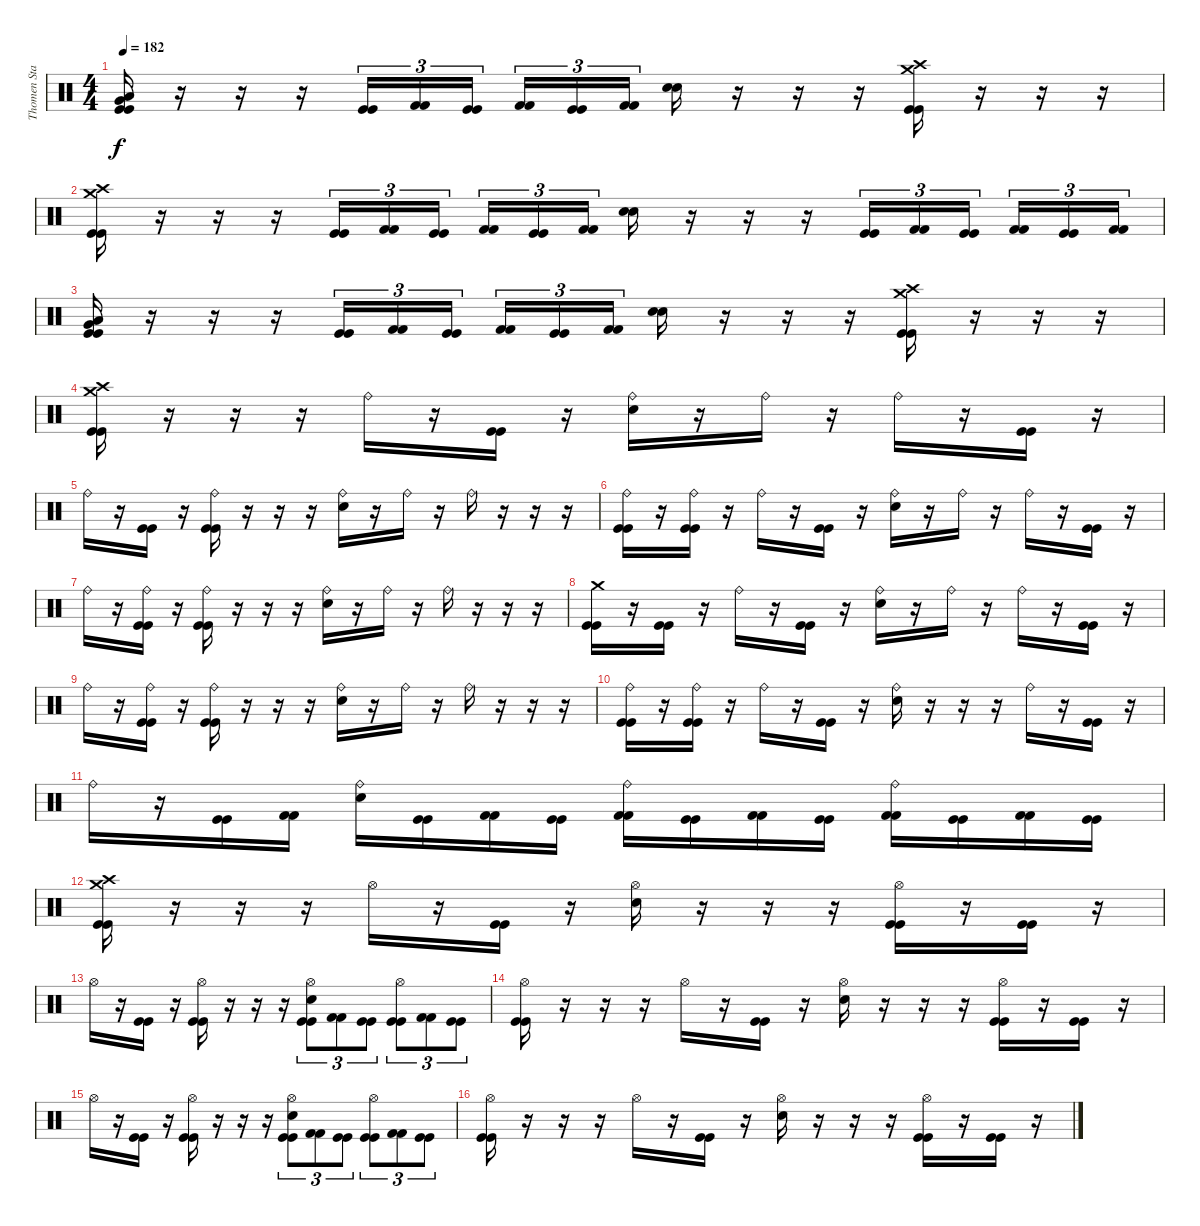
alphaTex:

\track ("Thomen Stauch" "Thomen Sta") {instrument percussion}
\staff {score}
\articulation defaults
\ts (4 4)
\tempo 182
\clef neutral
\ks c
("Very Low Tom (hit)" "Low Tom (hit)" "Kick (hit)" "Kick (hit)").16{dy f} r.16 r.16 r.16 ("Kick (hit)" "Kick (hit)").16{tu (3 2)} ("Kick (hit) 2" "Kick (hit) 2").16{tu (3 2)} ("Kick (hit)" "Kick (hit)").16{tu (3 2)} ("Kick (hit) 2" "Kick (hit) 2").16{tu (3 2)} ("Kick (hit)" "Kick (hit)").16{tu (3 2)} ("Kick (hit) 2" "Kick (hit) 2").16{tu (3 2)} ("Snare (hit) 2" "Snare (hit) 2").16 r.16 r.16 r.16 ("Crash medium (hit)" "Crash high (hit)" "Kick (hit)" "Kick (hit)").16 r.16 r.16 r.16 |
("Crash medium (hit)" "Crash high (hit)" "Kick (hit)" "Kick (hit)").16 r.16 r.16 r.16 ("Kick (hit)" "Kick (hit)").16{tu (3 2)} ("Kick (hit) 2" "Kick (hit) 2").16{tu (3 2)} ("Kick (hit)" "Kick (hit)").16{tu (3 2)} ("Kick (hit) 2" "Kick (hit) 2").16{tu (3 2)} ("Kick (hit)" "Kick (hit)").16{tu (3 2)} ("Kick (hit) 2" "Kick (hit) 2").16{tu (3 2)} ("Snare (hit) 2" "Snare (hit) 2").16 r.16 r.16 r.16 ("Kick (hit)" "Kick (hit)").16{tu (3 2)} ("Kick (hit) 2" "Kick (hit) 2").16{tu (3 2)} ("Kick (hit)" "Kick (hit)").16{tu (3 2)} ("Kick (hit) 2" "Kick (hit) 2").16{tu (3 2)} ("Kick (hit)" "Kick (hit)").16{tu (3 2)} ("Kick (hit) 2" "Kick (hit) 2").16{tu (3 2)} |
("Very Low Tom (hit)" "Low Tom (hit)" "Kick (hit)" "Kick (hit)").16 r.16 r.16 r.16 ("Kick (hit)" "Kick (hit)").16{tu (3 2)} ("Kick (hit) 2" "Kick (hit) 2").16{tu (3 2)} ("Kick (hit)" "Kick (hit)").16{tu (3 2)} ("Kick (hit) 2" "Kick (hit) 2").16{tu (3 2)} ("Kick (hit)" "Kick (hit)").16{tu (3 2)} ("Kick (hit) 2" "Kick (hit) 2").16{tu (3 2)} ("Snare (hit) 2" "Snare (hit) 2").16 r.16 r.16 r.16 ("Crash medium (hit)" "Crash high (hit)" "Kick (hit)" "Kick (hit)").16 r.16 r.16 r.16 |
("Crash medium (hit)" "Crash high (hit)" "Kick (hit)" "Kick (hit)").16 r.16 r.16 r.16 "Ride (bell)".16 r.16 ("Kick (hit)" "Kick (hit)").16 r.16 ("Ride (bell)" "Snare (hit) 2").16 r.16 "Ride (bell)".16 r.16 "Ride (bell)".16 r.16 ("Kick (hit)" "Kick (hit)").16 r.16 |
"Ride (bell)".16 r.16 ("Kick (hit)" "Kick (hit)").16 r.16 ("Ride (bell)" "Kick (hit)" "Kick (hit)").16 r.16 r.16 r.16 ("Ride (bell)" "Snare (hit) 2").16 r.16 "Ride (bell)".16 r.16 "Ride (bell)".16 r.16 r.16 r.16 |
("Ride (bell)" "Kick (hit)" "Kick (hit)").16 r.16 ("Ride (bell)" "Kick (hit)" "Kick (hit)").16 r.16 "Ride (bell)".16 r.16 ("Kick (hit)" "Kick (hit)").16 r.16 ("Ride (bell)" "Snare (hit) 2").16 r.16 "Ride (bell)".16 r.16 "Ride (bell)".16 r.16 ("Kick (hit)" "Kick (hit)").16 r.16 |
"Ride (bell)".16 r.16 ("Ride (bell)" "Kick (hit)" "Kick (hit)").16 r.16 ("Ride (bell)" "Kick (hit)" "Kick (hit)").16 r.16 r.16 r.16 ("Ride (bell)" "Snare (hit) 2").16 r.16 "Ride (bell)".16 r.16 "Ride (bell)".16 r.16 r.16 r.16 |
("Crash medium (hit)" "Kick (hit)" "Kick (hit)").16 r.16 ("Kick (hit)" "Kick (hit)").16 r.16 "Ride (bell)".16 r.16 ("Kick (hit)" "Kick (hit)").16 r.16 ("Ride (bell)" "Snare (hit) 2").16 r.16 "Ride (bell)".16 r.16 "Ride (bell)".16 r.16 ("Kick (hit)" "Kick (hit)").16 r.16 |
"Ride (bell)".16 r.16 ("Ride (bell)" "Kick (hit)" "Kick (hit)").16 r.16 ("Ride (bell)" "Kick (hit)" "Kick (hit)").16 r.16 r.16 r.16 ("Ride (bell)" "Snare (hit) 2").16 r.16 "Ride (bell)".16 r.16 "Ride (bell)".16 r.16 r.16 r.16 |
("Ride (bell)" "Kick (hit)" "Kick (hit)").16 r.16 ("Ride (bell)" "Kick (hit)" "Kick (hit)").16 r.16 "Ride (bell)".16 r.16 ("Kick (hit)" "Kick (hit)").16 r.16 ("Ride (bell)" "Snare (hit) 2").16 r.16 r.16 r.16 "Ride (bell)".16 r.16 ("Kick (hit)" "Kick (hit)").16 r.16 |
"Ride (bell)".16 r.16 ("Kick (hit)" "Kick (hit)").16 ("Kick (hit) 2" "Kick (hit) 2").16 ("Ride (bell)" "Snare (hit) 2").16 ("Kick (hit)" "Kick (hit)").16 ("Kick (hit) 2" "Kick (hit) 2").16 ("Kick (hit)" "Kick (hit)").16 ("Ride (bell)" "Kick (hit) 2" "Kick (hit) 2").16 ("Kick (hit)" "Kick (hit)").16 ("Kick (hit) 2" "Kick (hit) 2").16 ("Kick (hit)" "Kick (hit)").16 ("Ride (bell)" "Kick (hit) 2" "Kick (hit) 2").16 ("Kick (hit)" "Kick (hit)").16 ("Kick (hit) 2" "Kick (hit) 2").16 ("Kick (hit)" "Kick (hit)").16 |
("Crash medium (hit)" "Crash high (hit)" "Kick (hit)" "Kick (hit)").16 r.16 r.16 r.16 "Hi-Hat (open)".16 r.16 ("Kick (hit)" "Kick (hit)").16 r.16 ("Hi-Hat (open)" "Snare (hit) 2").16 r.16 r.16 r.16 ("Hi-Hat (open)" "Kick (hit)" "Kick (hit)").16 r.16 ("Kick (hit)" "Kick (hit)").16 r.16 |
"Hi-Hat (open)".16 r.16 ("Kick (hit)" "Kick (hit)").16 r.16 ("Hi-Hat (open)" "Kick (hit)" "Kick (hit)").16 r.16 r.16 r.16 ("Hi-Hat (open)" "Snare (hit) 2" "Kick (hit)" "Kick (hit)").8{tu (3 2)} ("Kick (hit) 2" "Kick (hit) 2").8{tu (3 2)} ("Kick (hit)" "Kick (hit)").8{tu (3 2)} ("Hi-Hat (open)" "Kick (hit)" "Kick (hit)").8{tu (3 2)} ("Kick (hit) 2" "Kick (hit) 2").8{tu (3 2)} ("Kick (hit)" "Kick (hit)").8{tu (3 2)} |
("Hi-Hat (open)" "Kick (hit)" "Kick (hit)").16 r.16 r.16 r.16 "Hi-Hat (open)".16 r.16 ("Kick (hit)" "Kick (hit)").16 r.16 ("Hi-Hat (open)" "Snare (hit) 2").16 r.16 r.16 r.16 ("Hi-Hat (open)" "Kick (hit)" "Kick (hit)").16 r.16 ("Kick (hit)" "Kick (hit)").16 r.16 |
"Hi-Hat (open)".16 r.16 ("Kick (hit)" "Kick (hit)").16 r.16 ("Hi-Hat (open)" "Kick (hit)" "Kick (hit)").16 r.16 r.16 r.16 ("Hi-Hat (open)" "Snare (hit) 2" "Kick (hit)" "Kick (hit)").8{tu (3 2)} ("Kick (hit) 2" "Kick (hit) 2").8{tu (3 2)} ("Kick (hit)" "Kick (hit)").8{tu (3 2)} ("Hi-Hat (open)" "Kick (hit)" "Kick (hit)").8{tu (3 2)} ("Kick (hit) 2" "Kick (hit) 2").8{tu (3 2)} ("Kick (hit)" "Kick (hit)").8{tu (3 2)} |
("Hi-Hat (open)" "Kick (hit)" "Kick (hit)").16 r.16 r.16 r.16 "Hi-Hat (open)".16 r.16 ("Kick (hit)" "Kick (hit)").16 r.16 ("Hi-Hat (open)" "Snare (hit) 2").16 r.16 r.16 r.16 ("Hi-Hat (open)" "Kick (hit)" "Kick (hit)").16 r.16 ("Kick (hit)" "Kick (hit)").16 r.16
